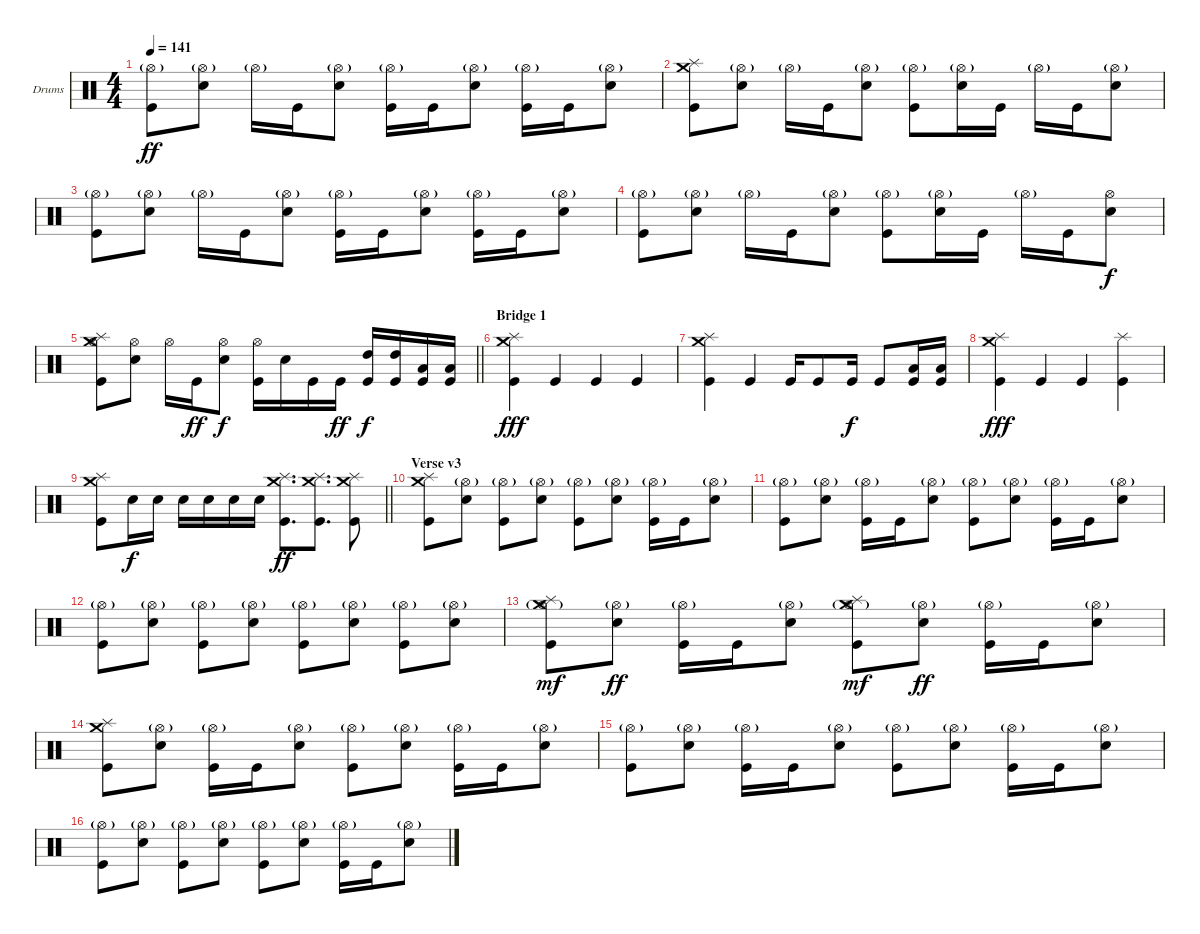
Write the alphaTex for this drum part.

\bracketExtendMode groupsimilarinstruments
\firstSystemTrackNameOrientation horizontal
\otherSystemsTrackNameOrientation horizontal
\track ("Drumkit" "Drums") {solo instrument percussion}
\staff {score}
\articulation defaults
\ts (4 4)
\tempo 141
\clef neutral
\scale
0.333333
\ks c
("Hi-Hat (open)"{g} "Kick (hit)").8{dy ff} ("Hi-Hat (open)"{g} "Snare (hit) 2").8 "Hi-Hat (open)"{g}.16 "Kick (hit)".16 ("Hi-Hat (open)"{g} "Snare (hit) 2").8 ("Hi-Hat (open)"{g} "Kick (hit)").16 "Kick (hit)".16 ("Hi-Hat (open)"{g} "Snare (hit) 2").8 ("Hi-Hat (open)"{g} "Kick (hit)").16 "Kick (hit)".16 ("Hi-Hat (open)"{g} "Snare (hit) 2").8 |
\scale
0.333333 ("Crash medium (hit)" "Splash (hit)" "Kick (hit)").8 ("Hi-Hat (open)"{g} "Snare (hit) 2").8 "Hi-Hat (open)"{g}.16 "Kick (hit)".16 ("Hi-Hat (open)"{g} "Snare (hit) 2").8 ("Hi-Hat (open)"{g} "Kick (hit)").8 ("Hi-Hat (open)"{g} "Snare (hit) 2").16 "Kick (hit)".16 "Hi-Hat (open)"{g}.16 "Kick (hit)".16 ("Hi-Hat (open)"{g} "Snare (hit) 2").8 |
\scale
0.333333 ("Hi-Hat (open)"{g} "Kick (hit)").8 ("Hi-Hat (open)"{g} "Snare (hit) 2").8 "Hi-Hat (open)"{g}.16 "Kick (hit)".16 ("Hi-Hat (open)"{g} "Snare (hit) 2").8 ("Hi-Hat (open)"{g} "Kick (hit)").16 "Kick (hit)".16 ("Hi-Hat (open)"{g} "Snare (hit) 2").8 ("Hi-Hat (open)"{g} "Kick (hit)").16 "Kick (hit)".16 ("Hi-Hat (open)"{g} "Snare (hit) 2").8 |
\scale
0.333333 ("Hi-Hat (open)"{g} "Kick (hit)").8 ("Hi-Hat (open)"{g} "Snare (hit) 2").8 "Hi-Hat (open)"{g}.16 "Kick (hit)".16 ("Hi-Hat (open)"{g} "Snare (hit) 2").8 ("Hi-Hat (open)"{g} "Kick (hit)").8 ("Hi-Hat (open)"{g} "Snare (hit) 2").16 "Kick (hit)".16 "Hi-Hat (open)"{g}.16 "Kick (hit)".16 ("Hi-Hat (open)" "Snare (hit) 2").8{dy f} |
\scale
0.333333
\barLineRight lightlight
("Hi-Hat (open)" "Splash (hit)" "Crash medium (hit)" "Kick (hit)").8 ("Hi-Hat (open)" "Snare (hit) 2").8 "Hi-Hat (open)".16 "Kick (hit)".16{dy ff} ("Hi-Hat (open)" "Snare (hit) 2").8{dy f} ("Hi-Hat (open)" "Kick (hit)").16 "Snare (hit) 2".16 "Kick (hit)".16 "Kick (hit)".16{dy ff} ("High Tom (hit)" "Kick (hit)").16{dy f} ("High Tom (hit)" "Kick (hit)").16 ("Low Tom (hit)" "Kick (hit)").16 ("Low Tom (hit)" "Kick (hit)").16 |
\section ("" "Bridge 1")
\scale
0.333333 ("Crash medium (hit)" "Splash (hit)" "Kick (hit)").4{dy fff} "Kick (hit)".4 "Kick (hit)".4 "Kick (hit)".4 |
\scale
0.333333 ("Crash medium (hit)" "Splash (hit)" "Kick (hit)").4 "Kick (hit)".4 "Kick (hit)".16 "Kick (hit)".8 "Kick (hit)".16{dy f} "Kick (hit)".8 ("Low Tom (hit)" "Kick (hit)").16 ("Low Tom (hit)" "Kick (hit)").16 |
\scale
0.333333 ("Crash medium (hit)" "Splash (hit)" "Kick (hit)").4{dy fff} "Kick (hit)".4 "Kick (hit)".4 ("Splash (hit)" "Kick (hit)").4 |
\scale
0.333333
\barLineRight lightlight
("Crash medium (hit)" "Splash (hit)" "Kick (hit)").8 "Snare (hit) 2".16{dy f} "Snare (hit) 2".16 "Snare (hit) 2".16 "Snare (hit) 2".16 "Snare (hit) 2".16 "Snare (hit) 2".16 ("Crash medium (hit)" "Splash (hit)" "Kick (hit)").8{d dy ff} ("Crash medium (hit)" "Splash (hit)" "Kick (hit)").8{d} ("Crash medium (hit)" "Splash (hit)" "Kick (hit)").8 |
\section ("" "Verse v3")
\scale
0.333333 ("Crash medium (hit)" "Splash (hit)" "Kick (hit)").8 ("Hi-Hat (open)"{g} "Snare (hit) 2").8 ("Hi-Hat (open)"{g} "Kick (hit)").8 ("Hi-Hat (open)"{g} "Snare (hit) 2").8 ("Hi-Hat (open)"{g} "Kick (hit)").8 ("Hi-Hat (open)"{g} "Snare (hit) 2").8 ("Hi-Hat (open)"{g} "Kick (hit)").16 "Kick (hit)".16 ("Hi-Hat (open)"{g} "Snare (hit) 2").8 |
\scale
0.333333 ("Hi-Hat (open)"{g} "Kick (hit)").8 ("Hi-Hat (open)"{g} "Snare (hit) 2").8 ("Hi-Hat (open)"{g} "Kick (hit)").16 "Kick (hit)".16 ("Hi-Hat (open)"{g} "Snare (hit) 2").8 ("Hi-Hat (open)"{g} "Kick (hit)").8 ("Hi-Hat (open)"{g} "Snare (hit) 2").8 ("Hi-Hat (open)"{g} "Kick (hit)").16 "Kick (hit)".16 ("Hi-Hat (open)"{g} "Snare (hit) 2").8 |
\scale
0.333333 ("Hi-Hat (open)"{g} "Kick (hit)").8 ("Hi-Hat (open)"{g} "Snare (hit) 2").8 ("Hi-Hat (open)"{g} "Kick (hit)").8 ("Hi-Hat (open)"{g} "Snare (hit) 2").8 ("Hi-Hat (open)"{g} "Kick (hit)").8 ("Hi-Hat (open)"{g} "Snare (hit) 2").8 ("Hi-Hat (open)"{g} "Kick (hit)").8 ("Hi-Hat (open)"{g} "Snare (hit) 2").8 |
\scale
0.333333 ("Hi-Hat (open)"{g} "Crash medium (hit)" "Splash (hit)" "Kick (hit)").8{dy mf} ("Hi-Hat (open)"{g} "Snare (hit) 2").8{dy ff} ("Hi-Hat (open)"{g} "Kick (hit)").16 "Kick (hit)".16 ("Hi-Hat (open)"{g} "Snare (hit) 2").8 ("Hi-Hat (open)"{g} "Crash medium (hit)" "Splash (hit)" "Kick (hit)").8{dy mf} ("Hi-Hat (open)"{g} "Snare (hit) 2").8{dy ff} ("Hi-Hat (open)"{g} "Kick (hit)").16 "Kick (hit)".16 ("Hi-Hat (open)"{g} "Snare (hit) 2").8 |
\scale
0.333333 ("Crash medium (hit)" "Splash (hit)" "Kick (hit)").8 ("Hi-Hat (open)"{g} "Snare (hit) 2").8 ("Hi-Hat (open)"{g} "Kick (hit)").16 "Kick (hit)".16 ("Hi-Hat (open)"{g} "Snare (hit) 2").8 ("Hi-Hat (open)"{g} "Kick (hit)").8 ("Hi-Hat (open)"{g} "Snare (hit) 2").8 ("Hi-Hat (open)"{g} "Kick (hit)").16 "Kick (hit)".16 ("Hi-Hat (open)"{g} "Snare (hit) 2").8 |
\scale
0.333333 ("Hi-Hat (open)"{g} "Kick (hit)").8 ("Hi-Hat (open)"{g} "Snare (hit) 2").8 ("Hi-Hat (open)"{g} "Kick (hit)").16 "Kick (hit)".16 ("Hi-Hat (open)"{g} "Snare (hit) 2").8 ("Hi-Hat (open)"{g} "Kick (hit)").8 ("Hi-Hat (open)"{g} "Snare (hit) 2").8 ("Hi-Hat (open)"{g} "Kick (hit)").16 "Kick (hit)".16 ("Hi-Hat (open)"{g} "Snare (hit) 2").8 |
\scale
0.333333 ("Hi-Hat (open)"{g} "Kick (hit)").8 ("Hi-Hat (open)"{g} "Snare (hit) 2").8 ("Hi-Hat (open)"{g} "Kick (hit)").8 ("Hi-Hat (open)"{g} "Snare (hit) 2").8 ("Hi-Hat (open)"{g} "Kick (hit)").8 ("Hi-Hat (open)"{g} "Snare (hit) 2").8 ("Hi-Hat (open)"{g} "Kick (hit)").16 "Kick (hit)".16 ("Hi-Hat (open)"{g} "Snare (hit) 2").8
